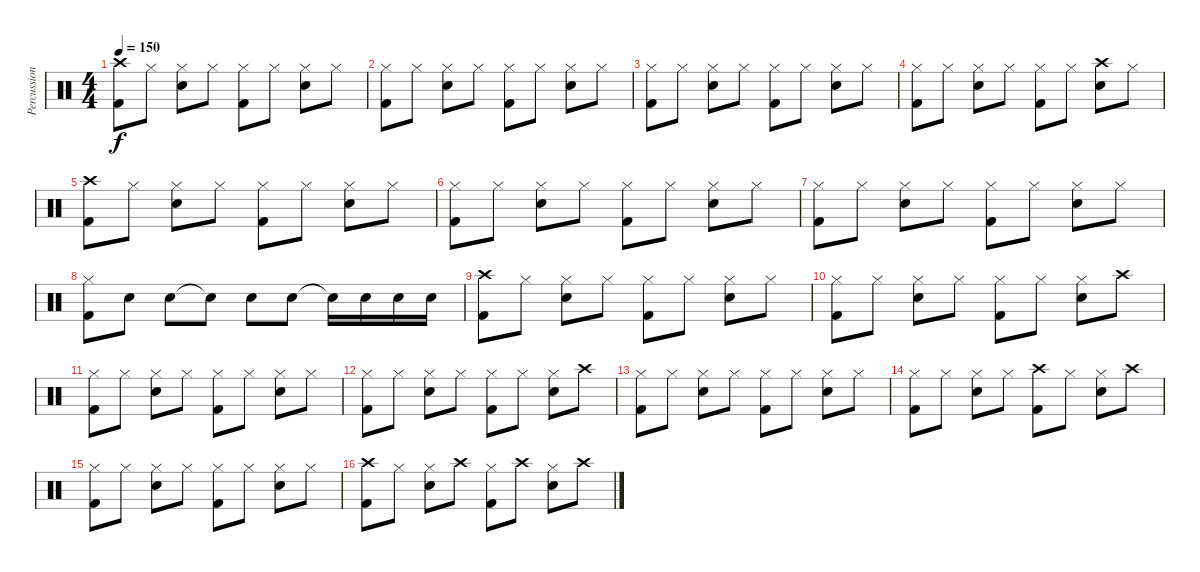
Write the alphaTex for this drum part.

\track ("Percussion" "Percussion") {instrument percussion}
\staff {score}
\articulation defaults
\ts (4 4)
\tempo 150
\clef neutral
\ks c
("Kick (hit) 2" "Crash high (hit)").8{dy f} "Hi-Hat (closed)".8 ("Snare (hit) 2" "Hi-Hat (closed)").8 "Hi-Hat (closed)".8 ("Kick (hit) 2" "Hi-Hat (closed)").8 "Hi-Hat (closed)".8 ("Snare (hit) 2" "Hi-Hat (closed)").8 "Hi-Hat (closed)".8 |
("Kick (hit) 2" "Hi-Hat (closed)").8 "Hi-Hat (closed)".8 ("Snare (hit) 2" "Hi-Hat (closed)").8 "Hi-Hat (closed)".8 ("Kick (hit) 2" "Hi-Hat (closed)").8 "Hi-Hat (closed)".8 ("Snare (hit) 2" "Hi-Hat (closed)").8 "Hi-Hat (closed)".8 |
("Kick (hit) 2" "Hi-Hat (closed)").8 "Hi-Hat (closed)".8 ("Snare (hit) 2" "Hi-Hat (closed)").8 "Hi-Hat (closed)".8 ("Kick (hit) 2" "Hi-Hat (closed)").8 "Hi-Hat (closed)".8 ("Snare (hit) 2" "Hi-Hat (closed)").8 "Hi-Hat (closed)".8 |
("Kick (hit) 2" "Hi-Hat (closed)").8 "Hi-Hat (closed)".8 ("Snare (hit) 2" "Hi-Hat (closed)").8 "Hi-Hat (closed)".8 ("Kick (hit) 2" "Hi-Hat (closed)").8 "Hi-Hat (closed)".8 ("Snare (hit) 2" "Crash high (hit)").8 "Hi-Hat (closed)".8 |
("Kick (hit) 2" "Crash high (hit)").8 "Hi-Hat (closed)".8 ("Snare (hit) 2" "Hi-Hat (closed)").8 "Hi-Hat (closed)".8 ("Kick (hit) 2" "Hi-Hat (closed)").8 "Hi-Hat (closed)".8 ("Snare (hit) 2" "Hi-Hat (closed)").8 "Hi-Hat (closed)".8 |
("Kick (hit) 2" "Hi-Hat (closed)").8 "Hi-Hat (closed)".8 ("Snare (hit) 2" "Hi-Hat (closed)").8 "Hi-Hat (closed)".8 ("Kick (hit) 2" "Hi-Hat (closed)").8 "Hi-Hat (closed)".8 ("Snare (hit) 2" "Hi-Hat (closed)").8 "Hi-Hat (closed)".8 |
("Kick (hit) 2" "Hi-Hat (closed)").8 "Hi-Hat (closed)".8 ("Snare (hit) 2" "Hi-Hat (closed)").8 "Hi-Hat (closed)".8 ("Kick (hit) 2" "Hi-Hat (closed)").8 "Hi-Hat (closed)".8 ("Snare (hit) 2" "Hi-Hat (closed)").8 "Hi-Hat (closed)".8 |
("Kick (hit) 2" "Hi-Hat (closed)").8 "Snare (hit) 2".8 "Snare (hit) 2".8 "Snare (hit)"{t}.8 "Snare (hit) 2".8 "Snare (hit) 2".8 "Snare (hit)"{t}.16 "Snare (hit) 2".16 "Snare (hit) 2".16 "Snare (hit) 2".16 |
("Kick (hit) 2" "Crash high (hit)").8 "Hi-Hat (closed)".8 ("Snare (hit) 2" "Hi-Hat (closed)").8 "Hi-Hat (closed)".8 ("Kick (hit) 2" "Hi-Hat (closed)").8 "Hi-Hat (closed)".8 ("Snare (hit) 2" "Hi-Hat (closed)").8 "Hi-Hat (closed)".8 |
("Kick (hit) 2" "Hi-Hat (closed)").8 "Hi-Hat (closed)".8 ("Snare (hit) 2" "Hi-Hat (closed)").8 "Hi-Hat (closed)".8 ("Kick (hit) 2" "Hi-Hat (closed)").8 "Hi-Hat (closed)".8 ("Snare (hit) 2" "Hi-Hat (closed)").8 "Crash high (hit)".8 |
("Kick (hit) 2" "Hi-Hat (closed)").8 "Hi-Hat (closed)".8 ("Snare (hit) 2" "Hi-Hat (closed)").8 "Hi-Hat (closed)".8 ("Kick (hit) 2" "Hi-Hat (closed)").8 "Hi-Hat (closed)".8 ("Snare (hit) 2" "Hi-Hat (closed)").8 "Hi-Hat (closed)".8 |
("Kick (hit) 2" "Hi-Hat (closed)").8 "Hi-Hat (closed)".8 ("Snare (hit) 2" "Hi-Hat (closed)").8 "Hi-Hat (closed)".8 ("Kick (hit) 2" "Hi-Hat (closed)").8 "Hi-Hat (closed)".8 ("Snare (hit) 2" "Hi-Hat (closed)").8 "Crash high (hit)".8 |
("Kick (hit) 2" "Hi-Hat (closed)").8 "Hi-Hat (closed)".8 ("Snare (hit) 2" "Hi-Hat (closed)").8 "Hi-Hat (closed)".8 ("Kick (hit) 2" "Hi-Hat (closed)").8 "Hi-Hat (closed)".8 ("Snare (hit) 2" "Hi-Hat (closed)").8 "Hi-Hat (closed)".8 |
("Kick (hit) 2" "Hi-Hat (closed)").8 "Hi-Hat (closed)".8 ("Snare (hit) 2" "Hi-Hat (closed)").8 "Hi-Hat (closed)".8 ("Kick (hit) 2" "Crash high (hit)").8 "Hi-Hat (closed)".8 ("Snare (hit) 2" "Hi-Hat (closed)").8 "Crash high (hit)".8 |
("Kick (hit) 2" "Hi-Hat (closed)").8 "Hi-Hat (closed)".8 ("Snare (hit) 2" "Hi-Hat (closed)").8 "Hi-Hat (closed)".8 ("Kick (hit) 2" "Hi-Hat (closed)").8 "Hi-Hat (closed)".8 ("Snare (hit) 2" "Hi-Hat (closed)").8 "Hi-Hat (closed)".8 |
("Kick (hit) 2" "Crash high (hit)").8 "Hi-Hat (closed)".8 ("Snare (hit) 2" "Hi-Hat (closed)").8 "Crash high (hit)".8 ("Kick (hit) 2" "Hi-Hat (closed)").8 "Crash high (hit)".8 ("Snare (hit) 2" "Hi-Hat (closed)").8 "Crash high (hit)".8
